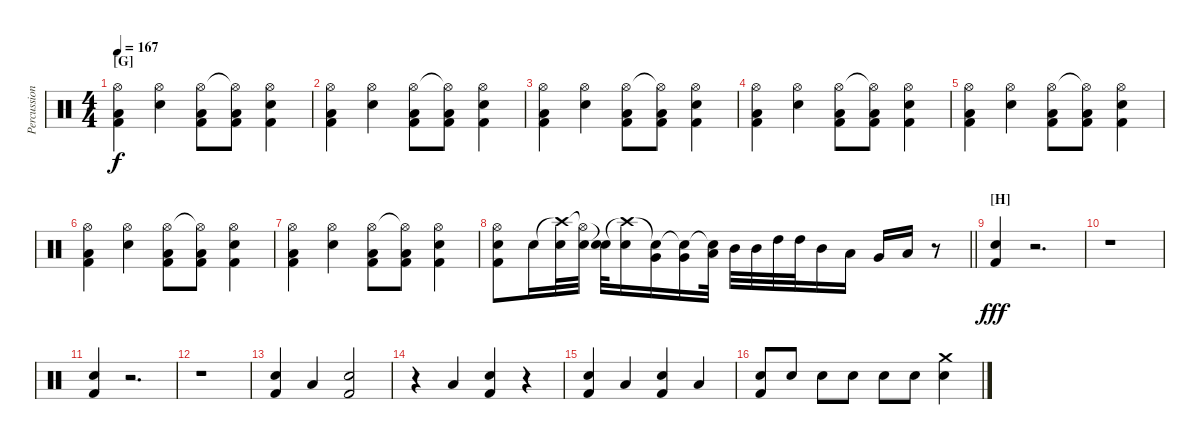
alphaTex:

\track ("Percussions" "Percussion") {instrument percussion}
\staff {score}
\articulation defaults
\ts (4 4)
\section ("" "[G]")
\tempo 167
\clef neutral
\ks c
("Hi-Hat (open)" "Low Floor Tom (hit)" "Kick (hit) 2").4{dy f} ("Hi-Hat (open)" "Electric Snare (hit)").4 ("Hi-Hat (open)" "Low Floor Tom (hit)" "Kick (hit) 2").8 ("Hi-Hat (open)"{t} "Low Floor Tom (hit)" "Kick (hit) 2").8 ("Hi-Hat (open)" "Electric Snare (hit)" "Kick (hit) 2").4 |
("Hi-Hat (open)" "Low Floor Tom (hit)" "Kick (hit) 2").4 ("Hi-Hat (open)" "Electric Snare (hit)").4 ("Hi-Hat (open)" "Low Floor Tom (hit)" "Kick (hit) 2").8 ("Hi-Hat (open)"{t} "Low Floor Tom (hit)" "Kick (hit) 2").8 ("Hi-Hat (open)" "Electric Snare (hit)" "Kick (hit) 2").4 |
("Hi-Hat (open)" "Low Floor Tom (hit)" "Kick (hit) 2").4 ("Hi-Hat (open)" "Electric Snare (hit)").4 ("Hi-Hat (open)" "Low Floor Tom (hit)" "Kick (hit) 2").8 ("Hi-Hat (open)"{t} "Low Floor Tom (hit)" "Kick (hit) 2").8 ("Hi-Hat (open)" "Electric Snare (hit)" "Kick (hit) 2").4 |
("Hi-Hat (open)" "Low Floor Tom (hit)" "Kick (hit) 2").4 ("Hi-Hat (open)" "Electric Snare (hit)").4 ("Hi-Hat (open)" "Low Floor Tom (hit)" "Kick (hit) 2").8 ("Hi-Hat (open)"{t} "Low Floor Tom (hit)" "Kick (hit) 2").8 ("Hi-Hat (open)" "Electric Snare (hit)" "Kick (hit) 2").4 |
("Hi-Hat (open)" "Low Floor Tom (hit)" "Kick (hit) 2").4 ("Hi-Hat (open)" "Electric Snare (hit)").4 ("Hi-Hat (open)" "Low Floor Tom (hit)" "Kick (hit) 2").8 ("Hi-Hat (open)"{t} "Low Floor Tom (hit)" "Kick (hit) 2").8 ("Hi-Hat (open)" "Electric Snare (hit)" "Kick (hit) 2").4 |
("Hi-Hat (open)" "Low Floor Tom (hit)" "Kick (hit) 2").4 ("Hi-Hat (open)" "Electric Snare (hit)").4 ("Hi-Hat (open)" "Low Floor Tom (hit)" "Kick (hit) 2").8 ("Hi-Hat (open)"{t} "Low Floor Tom (hit)" "Kick (hit) 2").8 ("Hi-Hat (open)" "Electric Snare (hit)" "Kick (hit) 2").4 |
("Hi-Hat (open)" "Low Floor Tom (hit)" "Kick (hit) 2").4 ("Hi-Hat (open)" "Electric Snare (hit)").4 ("Hi-Hat (open)" "Low Floor Tom (hit)" "Kick (hit) 2").8 ("Hi-Hat (open)"{t} "Low Floor Tom (hit)" "Kick (hit) 2").8 ("Hi-Hat (open)" "Electric Snare (hit)" "Kick (hit) 2").4 |
\barLineRight lightlight
("Hi-Hat (open)" "Electric Snare (hit)" "Kick (hit) 2").8 "Electric Snare (hit)".16 ("Crash high (hit)"{t} "Electric Snare (hit)").32 ("Hi-Hat (open)"{t} "Electric Snare (hit)").32 ("Snare (hit)"{t} "Electric Snare (hit)").32 ("Crash high (hit)"{t} "Electric Snare (hit)").16 ("Snare (hit)"{t} "Very Low Tom (hit)").16 ("Snare (hit)"{t} "Very Low Tom (hit)").16 ("Snare (hit)"{t} "Low Tom (hit)").32 "Mid Tom (hit)".32 "Mid Tom (hit)".32 "High Tom (hit)".32 "High Tom (hit)".32 "Mid Tom (hit)".16 "Low Tom (hit)".16 "Very Low Tom (hit)".16 "Low Floor Tom (hit)".16 r.8 |
\section ("" "[H]")
("Electric Snare (hit)" "Kick (hit) 2").4{dy fff} r.2{d} |
r.1 |
("Electric Snare (hit)" "Kick (hit) 2").4 r.2{d} |
r.1 |
("Electric Snare (hit)" "Kick (hit) 2").4 "Low Floor Tom (hit)".4 ("Electric Snare (hit)" "Kick (hit) 2").2 |
r.4 "Low Floor Tom (hit)".4 ("Electric Snare (hit)" "Kick (hit) 2").4 r.4 |
("Electric Snare (hit)" "Kick (hit) 2").4 "Low Floor Tom (hit)".4 ("Electric Snare (hit)" "Kick (hit) 2").4 "Low Floor Tom (hit)".4 |
("Electric Snare (hit)" "Kick (hit) 2").8 "Electric Snare (hit)".8 "Electric Snare (hit)".8 "Electric Snare (hit)".8 "Electric Snare (hit)".8 "Electric Snare (hit)".8 ("Crash medium (hit)" "Electric Snare (hit)").4
